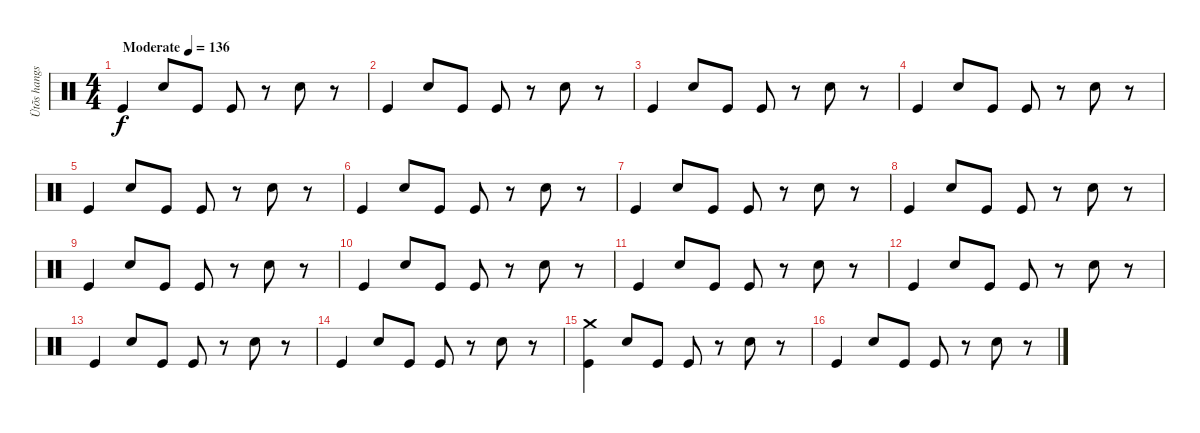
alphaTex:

\track ("Ütõs hangszer" "Ütõs hangs") {instrument percussion}
\staff {score}
\articulation defaults
\ts (4 4)
\tempo (136 "Moderate")
\clef neutral
\ks c "Kick (hit)".4{dy f} "Electric Snare (hit)".8 "Kick (hit)".8 "Kick (hit)".8
r.8 "Electric Snare (hit)".8 r.8 |
"Kick (hit)".4 "Electric Snare (hit)".8 "Kick (hit)".8 "Kick (hit)".8 r.8 "Electric Snare (hit)".8 r.8 |
"Kick (hit)".4 "Electric Snare (hit)".8 "Kick (hit)".8 "Kick (hit)".8 r.8 "Electric Snare (hit)".8 r.8 |
"Kick (hit)".4 "Electric Snare (hit)".8 "Kick (hit)".8 "Kick (hit)".8 r.8 "Electric Snare (hit)".8 r.8 |
"Kick (hit)".4 "Electric Snare (hit)".8 "Kick (hit)".8 "Kick (hit)".8 r.8 "Electric Snare (hit)".8 r.8 |
"Kick (hit)".4 "Electric Snare (hit)".8 "Kick (hit)".8 "Kick (hit)".8 r.8 "Electric Snare (hit)".8 r.8 |
"Kick (hit)".4 "Electric Snare (hit)".8 "Kick (hit)".8 "Kick (hit)".8 r.8 "Electric Snare (hit)".8 r.8 |
"Kick (hit)".4 "Electric Snare (hit)".8 "Kick (hit)".8 "Kick (hit)".8 r.8 "Electric Snare (hit)".8 r.8 |
"Kick (hit)".4 "Electric Snare (hit)".8 "Kick (hit)".8 "Kick (hit)".8 r.8 "Electric Snare (hit)".8 r.8 |
"Kick (hit)".4 "Electric Snare (hit)".8 "Kick (hit)".8 "Kick (hit)".8 r.8 "Electric Snare (hit)".8 r.8 |
"Kick (hit)".4 "Electric Snare (hit)".8 "Kick (hit)".8 "Kick (hit)".8 r.8 "Electric Snare (hit)".8 r.8 |
"Kick (hit)".4 "Electric Snare (hit)".8 "Kick (hit)".8 "Kick (hit)".8 r.8 "Electric Snare (hit)".8 r.8 |
"Kick (hit)".4 "Electric Snare (hit)".8 "Kick (hit)".8 "Kick (hit)".8 r.8 "Electric Snare (hit)".8 r.8 |
"Kick (hit)".4 "Electric Snare (hit)".8 "Kick (hit)".8 "Kick (hit)".8 r.8 "Electric Snare (hit)".8 r.8 |
("Crash medium (hit)" "Kick (hit)").4 "Electric Snare (hit)".8 "Kick (hit)".8 "Kick (hit)".8 r.8 "Electric Snare (hit)".8 r.8 |
"Kick (hit)".4 "Electric Snare (hit)".8 "Kick (hit)".8 "Kick (hit)".8 r.8 "Electric Snare (hit)".8 r.8
